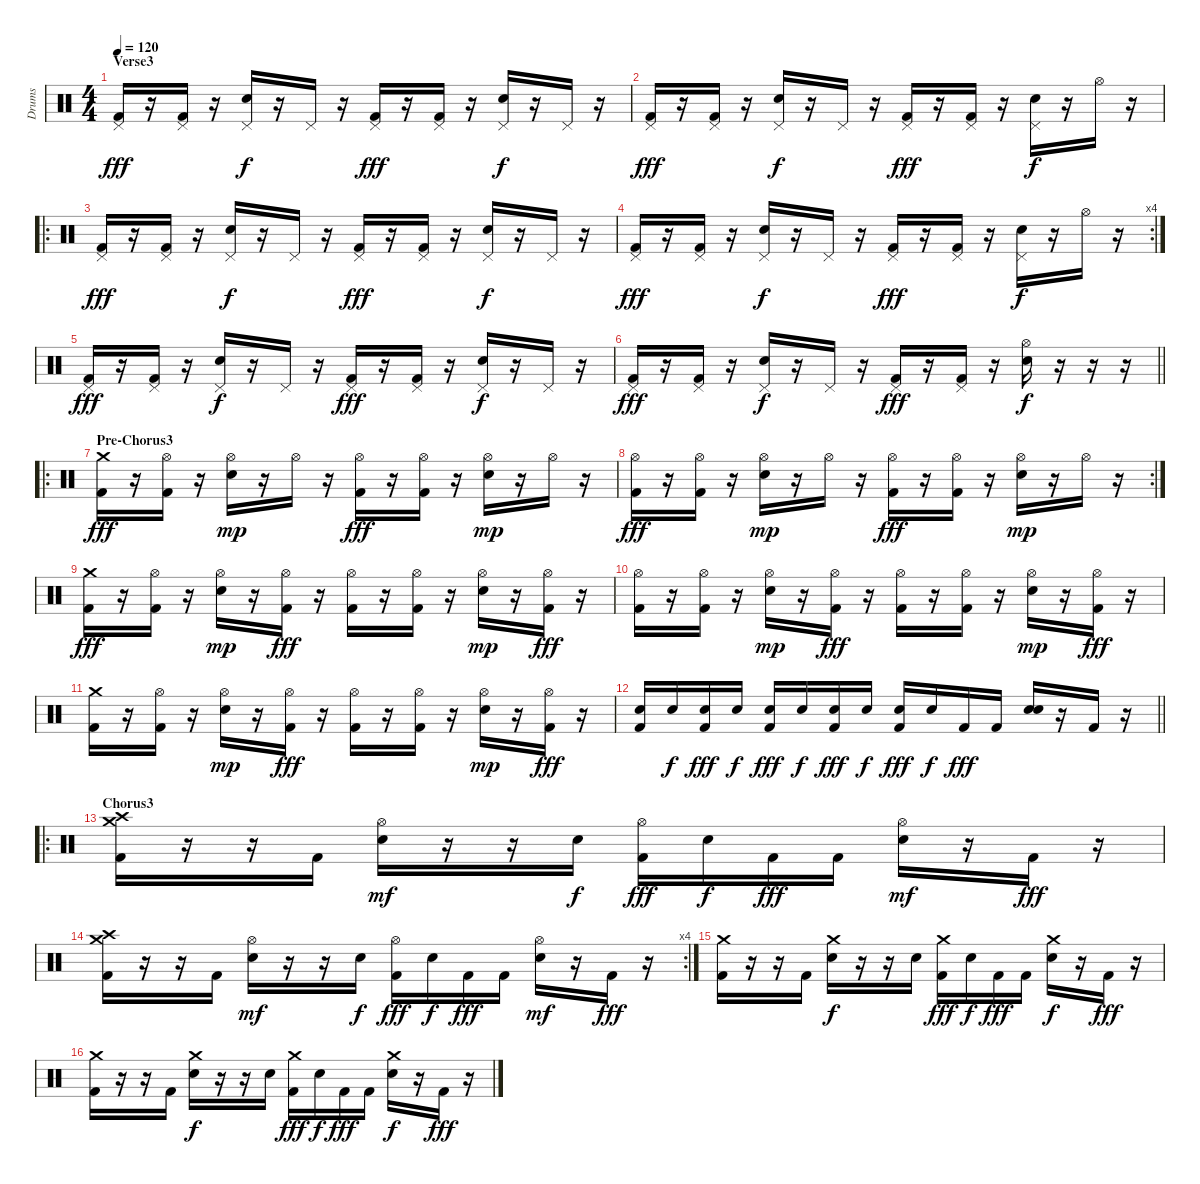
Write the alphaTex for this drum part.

\track ("Drums" "Drums") {instrument percussion}
\staff {score}
\articulation defaults
\ts (4 4)
\section ("" "Verse3")
\tempo 120
\clef neutral
\ks c
("Pedal Hi-Hat (hit)" "Kick (hit) 2").16{dy fff} r.16 ("Pedal Hi-Hat (hit)" "Kick (hit) 2").16 r.16 ("Pedal Hi-Hat (hit)" "Snare (hit) 2").16{dy f} r.16 "Pedal Hi-Hat (hit)".16 r.16 ("Pedal Hi-Hat (hit)" "Kick (hit) 2").16{dy fff} r.16 ("Pedal Hi-Hat (hit)" "Kick (hit) 2").16 r.16 ("Pedal Hi-Hat (hit)" "Snare (hit) 2").16{dy f} r.16 "Pedal Hi-Hat (hit)".16 r.16 |
("Pedal Hi-Hat (hit)" "Kick (hit) 2").16{dy fff} r.16 ("Pedal Hi-Hat (hit)" "Kick (hit) 2").16 r.16 ("Pedal Hi-Hat (hit)" "Snare (hit) 2").16{dy f} r.16 "Pedal Hi-Hat (hit)".16 r.16 ("Pedal Hi-Hat (hit)" "Kick (hit) 2").16{dy fff} r.16 ("Pedal Hi-Hat (hit)" "Kick (hit) 2").16 r.16 ("Pedal Hi-Hat (hit)" "Snare (hit) 2").16{dy f} r.16 "Hi-Hat (open)".16 r.16 |
\ro
("Pedal Hi-Hat (hit)" "Kick (hit) 2").16{dy fff} r.16 ("Pedal Hi-Hat (hit)" "Kick (hit) 2").16 r.16 ("Pedal Hi-Hat (hit)" "Snare (hit) 2").16{dy f} r.16 "Pedal Hi-Hat (hit)".16 r.16 ("Pedal Hi-Hat (hit)" "Kick (hit) 2").16{dy fff} r.16 ("Pedal Hi-Hat (hit)" "Kick (hit) 2").16 r.16 ("Pedal Hi-Hat (hit)" "Snare (hit) 2").16{dy f} r.16 "Pedal Hi-Hat (hit)".16 r.16 |
\rc 4
("Pedal Hi-Hat (hit)" "Kick (hit) 2").16{dy fff} r.16 ("Pedal Hi-Hat (hit)" "Kick (hit) 2").16 r.16 ("Pedal Hi-Hat (hit)" "Snare (hit) 2").16{dy f} r.16 "Pedal Hi-Hat (hit)".16 r.16 ("Pedal Hi-Hat (hit)" "Kick (hit) 2").16{dy fff} r.16 ("Pedal Hi-Hat (hit)" "Kick (hit) 2").16 r.16 ("Pedal Hi-Hat (hit)" "Snare (hit) 2").16{dy f} r.16 "Hi-Hat (open)".16 r.16 |
("Pedal Hi-Hat (hit)" "Kick (hit) 2").16{dy fff} r.16 ("Pedal Hi-Hat (hit)" "Kick (hit) 2").16 r.16 ("Pedal Hi-Hat (hit)" "Snare (hit) 2").16{dy f} r.16 "Pedal Hi-Hat (hit)".16 r.16 ("Pedal Hi-Hat (hit)" "Kick (hit) 2").16{dy fff} r.16 ("Pedal Hi-Hat (hit)" "Kick (hit) 2").16 r.16 ("Pedal Hi-Hat (hit)" "Snare (hit) 2").16{dy f} r.16 "Pedal Hi-Hat (hit)".16 r.16 |
\barLineRight lightlight
("Pedal Hi-Hat (hit)" "Kick (hit) 2").16{dy fff} r.16 ("Pedal Hi-Hat (hit)" "Kick (hit) 2").16 r.16 ("Pedal Hi-Hat (hit)" "Snare (hit) 2").16{dy f} r.16 "Pedal Hi-Hat (hit)".16 r.16 ("Pedal Hi-Hat (hit)" "Kick (hit) 2").16{dy fff} r.16 ("Pedal Hi-Hat (hit)" "Kick (hit) 2").16 r.16 ("Hi-Hat (open)" "Snare (hit) 2").16{dy f} r.16 r.16 r.16 |
\ro
\section ("" "Pre-Chorus3")
("Crash medium (hit)" "Kick (hit) 2").16{dy fff} r.16 ("Hi-Hat (open)" "Kick (hit) 2").16 r.16 ("Hi-Hat (open)" "Snare (hit) 2").16{dy mp} r.16 "Hi-Hat (open)".16 r.16 ("Hi-Hat (open)" "Kick (hit) 2").16{dy fff} r.16 ("Hi-Hat (open)" "Kick (hit) 2").16 r.16 ("Hi-Hat (open)" "Snare (hit) 2").16{dy mp} r.16 "Hi-Hat (open)".16 r.16 |
\rc 2
("Hi-Hat (open)" "Kick (hit) 2").16{dy fff} r.16 ("Hi-Hat (open)" "Kick (hit) 2").16 r.16 ("Hi-Hat (open)" "Snare (hit) 2").16{dy mp} r.16 "Hi-Hat (open)".16 r.16 ("Hi-Hat (open)" "Kick (hit) 2").16{dy fff} r.16 ("Hi-Hat (open)" "Kick (hit) 2").16 r.16 ("Hi-Hat (open)" "Snare (hit) 2").16{dy mp} r.16 "Hi-Hat (open)".16 r.16 |
("Crash medium (hit)" "Kick (hit) 2").16{dy fff} r.16 ("Hi-Hat (open)" "Kick (hit) 2").16 r.16 ("Hi-Hat (open)" "Snare (hit) 2").16{dy mp} r.16 ("Hi-Hat (open)" "Kick (hit) 2").16{dy fff} r.16 ("Hi-Hat (open)" "Kick (hit) 2").16 r.16 ("Hi-Hat (open)" "Kick (hit) 2").16 r.16 ("Hi-Hat (open)" "Snare (hit) 2").16{dy mp} r.16 ("Hi-Hat (open)" "Kick (hit) 2").16{dy fff} r.16 |
("Hi-Hat (open)" "Kick (hit) 2").16 r.16 ("Hi-Hat (open)" "Kick (hit) 2").16 r.16 ("Hi-Hat (open)" "Snare (hit) 2").16{dy mp} r.16 ("Hi-Hat (open)" "Kick (hit) 2").16{dy fff} r.16 ("Hi-Hat (open)" "Kick (hit) 2").16 r.16 ("Hi-Hat (open)" "Kick (hit) 2").16 r.16 ("Hi-Hat (open)" "Snare (hit) 2").16{dy mp} r.16 ("Hi-Hat (open)" "Kick (hit) 2").16{dy fff} r.16 |
("Crash medium (hit)" "Kick (hit) 2").16 r.16 ("Hi-Hat (open)" "Kick (hit) 2").16 r.16 ("Hi-Hat (open)" "Snare (hit) 2").16{dy mp} r.16 ("Hi-Hat (open)" "Kick (hit) 2").16{dy fff} r.16 ("Hi-Hat (open)" "Kick (hit) 2").16 r.16 ("Hi-Hat (open)" "Kick (hit) 2").16 r.16 ("Hi-Hat (open)" "Snare (hit) 2").16{dy mp} r.16 ("Hi-Hat (open)" "Kick (hit) 2").16{dy fff} r.16 |
\barLineRight lightlight
("Snare (hit) 2" "Kick (hit) 2").16 "Snare (hit) 2".16{dy f} ("Snare (hit) 2" "Kick (hit) 2").16{dy fff} "Snare (hit) 2".16{dy f} ("Snare (hit) 2" "Kick (hit) 2").16{dy fff} "Snare (hit) 2".16{dy f} ("Snare (hit) 2" "Kick (hit) 2").16{dy fff} "Snare (hit) 2".16{dy f} ("Snare (hit) 2" "Kick (hit) 2").16{dy fff} "Snare (hit) 2".16{dy f} "Kick (hit) 2".16{dy fff} "Kick (hit) 2".16 ("Electric Snare (hit)" "Snare (hit) 2").16 r.16 "Kick (hit) 2".16 r.16 |
\ro
\section ("" "Chorus3")
("Crash medium (hit)" "Crash high (hit)" "Kick (hit) 2").16 r.16 r.16 "Kick (hit) 2".16 ("Hi-Hat (open)" "Snare (hit) 2").16{dy mf} r.16 r.16 "Snare (hit) 2".16{dy f} ("Hi-Hat (open)" "Kick (hit) 2").16{dy fff} "Snare (hit) 2".16{dy f} "Kick (hit) 2".16{dy fff} "Kick (hit) 2".16 ("Hi-Hat (open)" "Snare (hit) 2").16{dy mf} r.16 "Kick (hit) 2".16{dy fff} r.16 |
\rc 4
("Crash medium (hit)" "Crash high (hit)" "Kick (hit) 2").16 r.16 r.16 "Kick (hit) 2".16 ("Hi-Hat (open)" "Snare (hit) 2").16{dy mf} r.16 r.16 "Snare (hit) 2".16{dy f} ("Hi-Hat (open)" "Kick (hit) 2").16{dy fff} "Snare (hit) 2".16{dy f} "Kick (hit) 2".16{dy fff} "Kick (hit) 2".16 ("Hi-Hat (open)" "Snare (hit) 2").16{dy mf} r.16 "Kick (hit) 2".16{dy fff} r.16 |
("Crash medium (hit)" "Kick (hit) 2").16 r.16 r.16 "Kick (hit) 2".16 ("Crash medium (hit)" "Snare (hit) 2").16{dy f} r.16 r.16 "Snare (hit) 2".16 ("Crash medium (hit)" "Kick (hit) 2").16{dy fff} "Snare (hit) 2".16{dy f} "Kick (hit) 2".16{dy fff} "Kick (hit) 2".16 ("Crash medium (hit)" "Snare (hit) 2").16{dy f} r.16 "Kick (hit) 2".16{dy fff} r.16 |
("Crash medium (hit)" "Kick (hit) 2").16 r.16 r.16 "Kick (hit) 2".16 ("Crash medium (hit)" "Snare (hit) 2").16{dy f} r.16 r.16 "Snare (hit) 2".16 ("Crash medium (hit)" "Kick (hit) 2").16{dy fff} "Snare (hit) 2".16{dy f} "Kick (hit) 2".16{dy fff} "Kick (hit) 2".16 ("Crash medium (hit)" "Snare (hit) 2").16{dy f} r.16 "Kick (hit) 2".16{dy fff} r.16
